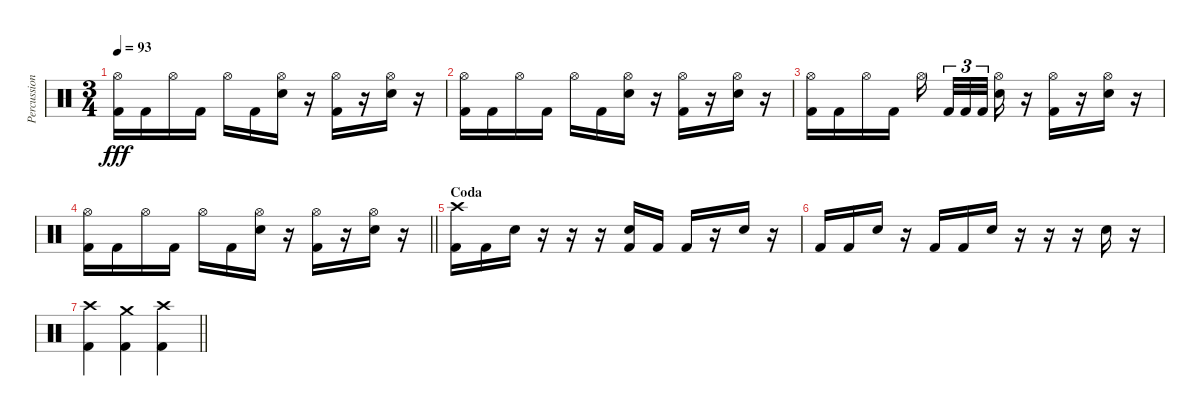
\track ("Percussion" "Percussion") {instrument percussion}
\staff {score}
\articulation defaults
\ts (3 4)
\tempo 93
\clef neutral
\ks c
("Hi-Hat (open)" "Kick (hit) 2").16{dy fff} "Kick (hit) 2".16 "Hi-Hat (open)".16 "Kick (hit) 2".16 "Hi-Hat (open)".16 "Kick (hit) 2".16 ("Hi-Hat (open)" "Snare (hit) 2").16 r.16 ("Hi-Hat (open)" "Kick (hit) 2").16 r.16 ("Hi-Hat (open)" "Snare (hit) 2").16 r.16 |
("Hi-Hat (open)" "Kick (hit) 2").16 "Kick (hit) 2".16 "Hi-Hat (open)".16 "Kick (hit) 2".16 "Hi-Hat (open)".16 "Kick (hit) 2".16 ("Hi-Hat (open)" "Snare (hit) 2").16 r.16 ("Hi-Hat (open)" "Kick (hit) 2").16 r.16 ("Hi-Hat (open)" "Snare (hit) 2").16 r.16 |
("Hi-Hat (open)" "Kick (hit) 2").16 "Kick (hit) 2".16 "Hi-Hat (open)".16 "Kick (hit) 2".16 "Hi-Hat (open)".16{beam splitsecondary} "Kick (hit) 2".32{tu (3 2)} "Kick (hit) 2".32{tu (3 2)} "Kick (hit) 2".32{tu (3 2) beam splitsecondary} ("Hi-Hat (open)" "Snare (hit) 2").16 r.16 ("Hi-Hat (open)" "Kick (hit) 2").16 r.16 ("Hi-Hat (open)" "Snare (hit) 2").16 r.16 |
\barLineRight lightlight
("Hi-Hat (open)" "Kick (hit) 2").16 "Kick (hit) 2".16 "Hi-Hat (open)".16 "Kick (hit) 2".16 "Hi-Hat (open)".16 "Kick (hit) 2".16 ("Hi-Hat (open)" "Snare (hit) 2").16 r.16 ("Hi-Hat (open)" "Kick (hit) 2").16 r.16 ("Hi-Hat (open)" "Snare (hit) 2").16 r.16 |
\section ("" "Coda")
("Crash high (hit)" "Kick (hit) 2").16 "Kick (hit) 2".16 "Snare (hit) 2".16 r.16 r.16 r.16 ("Snare (hit) 2" "Kick (hit) 2").16 "Kick (hit) 2".16 "Kick (hit) 2".16 r.16 "Snare (hit) 2".16 r.16 |
"Kick (hit) 2".16 "Kick (hit) 2".16 "Snare (hit) 2".16 r.16 "Kick (hit) 2".16 "Kick (hit) 2".16 "Snare (hit) 2".16 r.16 r.16 r.16 "Snare (hit) 2".16 r.16 |
\barLineRight lightlight
("Crash high (hit)" "Kick (hit) 2").4 ("Crash medium (hit)" "Kick (hit) 2").4 ("Crash high (hit)" "Kick (hit) 2").4
